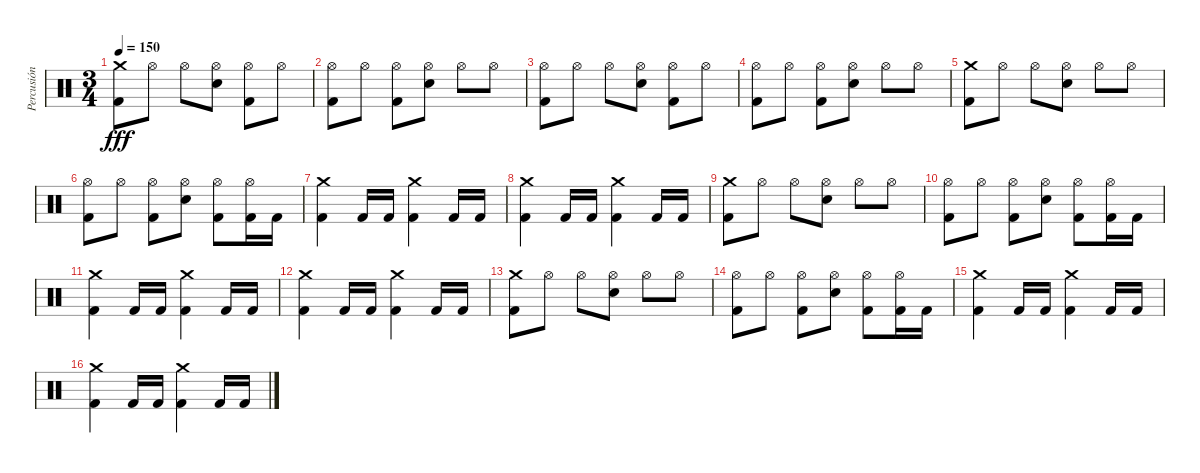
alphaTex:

\track ("Percusión" "Percusión") {instrument percussion}
\staff {score}
\articulation defaults
\ts (3 4)
\tempo 150
\clef neutral
\ks c
("Crash medium (hit)" "Kick (hit) 2").8{dy fff} "Hi-Hat (open)".8 "Hi-Hat (open)".8 ("Hi-Hat (open)" "Snare (hit) 2").8 ("Hi-Hat (open)" "Kick (hit) 2").8 "Hi-Hat (open)".8 |
("Hi-Hat (open)" "Kick (hit) 2").8 "Hi-Hat (open)".8 ("Hi-Hat (open)" "Kick (hit) 2").8 ("Hi-Hat (open)" "Snare (hit) 2").8 "Hi-Hat (open)".8 "Hi-Hat (open)".8 |
("Hi-Hat (open)" "Kick (hit) 2").8 "Hi-Hat (open)".8 "Hi-Hat (open)".8 ("Hi-Hat (open)" "Snare (hit) 2").8 ("Hi-Hat (open)" "Kick (hit) 2").8 "Hi-Hat (open)".8 |
("Hi-Hat (open)" "Kick (hit) 2").8 "Hi-Hat (open)".8 ("Hi-Hat (open)" "Kick (hit) 2").8 ("Hi-Hat (open)" "Snare (hit) 2").8 "Hi-Hat (open)".8 "Hi-Hat (open)".8 |
("Crash medium (hit)" "Kick (hit) 2").8 "Hi-Hat (open)".8 "Hi-Hat (open)".8 ("Hi-Hat (open)" "Snare (hit) 2").8 "Hi-Hat (open)".8 "Hi-Hat (open)".8 |
("Hi-Hat (open)" "Kick (hit) 2").8 "Hi-Hat (open)".8 ("Hi-Hat (open)" "Kick (hit) 2").8 ("Hi-Hat (open)" "Snare (hit) 2").8 ("Hi-Hat (open)" "Kick (hit) 2").8 ("Hi-Hat (open)" "Kick (hit) 2").16 "Kick (hit) 2".16 |
("Crash medium (hit)" "Kick (hit) 2").4 "Kick (hit) 2".16 "Kick (hit) 2".16 ("Crash medium (hit)" "Kick (hit) 2").4 "Kick (hit) 2".16 "Kick (hit) 2".16 |
("Crash medium (hit)" "Kick (hit) 2").4 "Kick (hit) 2".16 "Kick (hit) 2".16 ("Crash medium (hit)" "Kick (hit) 2").4 "Kick (hit) 2".16 "Kick (hit) 2".16 |
("Crash medium (hit)" "Kick (hit) 2").8 "Hi-Hat (open)".8 "Hi-Hat (open)".8 ("Hi-Hat (open)" "Snare (hit) 2").8 "Hi-Hat (open)".8 "Hi-Hat (open)".8 |
("Hi-Hat (open)" "Kick (hit) 2").8 "Hi-Hat (open)".8 ("Hi-Hat (open)" "Kick (hit) 2").8 ("Hi-Hat (open)" "Snare (hit) 2").8 ("Hi-Hat (open)" "Kick (hit) 2").8 ("Hi-Hat (open)" "Kick (hit) 2").16 "Kick (hit) 2".16 |
("Crash medium (hit)" "Kick (hit) 2").4 "Kick (hit) 2".16 "Kick (hit) 2".16 ("Crash medium (hit)" "Kick (hit) 2").4 "Kick (hit) 2".16 "Kick (hit) 2".16 |
("Crash medium (hit)" "Kick (hit) 2").4 "Kick (hit) 2".16 "Kick (hit) 2".16 ("Crash medium (hit)" "Kick (hit) 2").4 "Kick (hit) 2".16 "Kick (hit) 2".16 |
("Crash medium (hit)" "Kick (hit) 2").8 "Hi-Hat (open)".8 "Hi-Hat (open)".8 ("Hi-Hat (open)" "Snare (hit) 2").8 "Hi-Hat (open)".8 "Hi-Hat (open)".8 |
("Hi-Hat (open)" "Kick (hit) 2").8 "Hi-Hat (open)".8 ("Hi-Hat (open)" "Kick (hit) 2").8 ("Hi-Hat (open)" "Snare (hit) 2").8 ("Hi-Hat (open)" "Kick (hit) 2").8 ("Hi-Hat (open)" "Kick (hit) 2").16 "Kick (hit) 2".16 |
("Crash medium (hit)" "Kick (hit) 2").4 "Kick (hit) 2".16 "Kick (hit) 2".16 ("Crash medium (hit)" "Kick (hit) 2").4 "Kick (hit) 2".16 "Kick (hit) 2".16 |
("Crash medium (hit)" "Kick (hit) 2").4 "Kick (hit) 2".16 "Kick (hit) 2".16 ("Crash medium (hit)" "Kick (hit) 2").4 "Kick (hit) 2".16 "Kick (hit) 2".16
